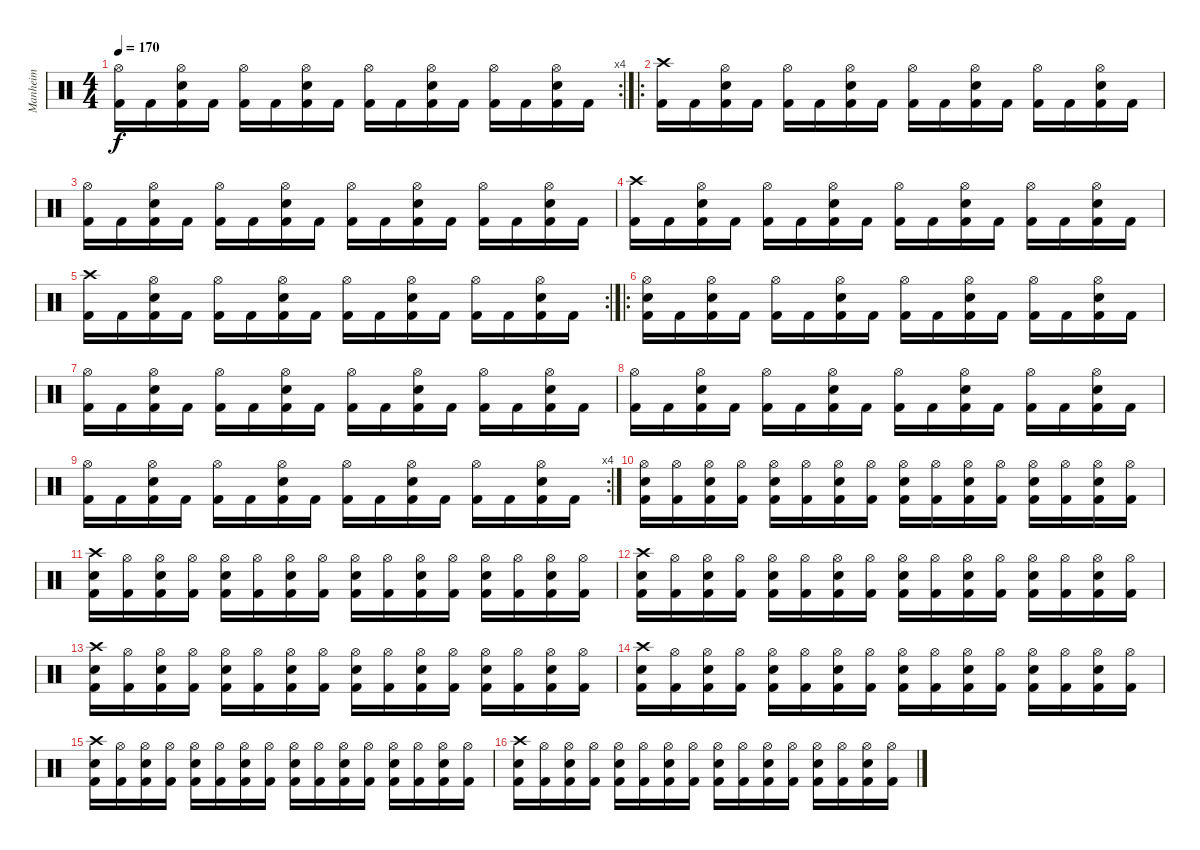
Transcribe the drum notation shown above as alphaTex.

\track ("Manheim" "Manheim") {instrument percussion}
\staff {score}
\articulation defaults
\rc 4
\ts (4 4)
\tempo 170
\clef neutral
\ks c
("Hi-Hat (open)" "Kick (hit) 2").16{dy f} "Kick (hit) 2".16 ("Hi-Hat (open)" "Snare (hit) 2" "Kick (hit) 2").16 "Kick (hit) 2".16 ("Hi-Hat (open)" "Kick (hit) 2").16 "Kick (hit) 2".16 ("Hi-Hat (open)" "Snare (hit) 2" "Kick (hit) 2").16 "Kick (hit) 2".16 ("Hi-Hat (open)" "Kick (hit) 2").16 "Kick (hit) 2".16 ("Hi-Hat (open)" "Snare (hit) 2" "Kick (hit) 2").16 "Kick (hit) 2".16 ("Hi-Hat (open)" "Kick (hit) 2").16 "Kick (hit) 2".16 ("Hi-Hat (open)" "Snare (hit) 2" "Kick (hit) 2").16 "Kick (hit) 2".16 |
\ro
("Crash high (hit)" "Kick (hit) 2").16 "Kick (hit) 2".16 ("Hi-Hat (open)" "Snare (hit) 2" "Kick (hit) 2").16 "Kick (hit) 2".16 ("Hi-Hat (open)" "Kick (hit) 2").16 "Kick (hit) 2".16 ("Hi-Hat (open)" "Snare (hit) 2" "Kick (hit) 2").16 "Kick (hit) 2".16 ("Hi-Hat (open)" "Kick (hit) 2").16 "Kick (hit) 2".16 ("Hi-Hat (open)" "Snare (hit) 2" "Kick (hit) 2").16 "Kick (hit) 2".16 ("Hi-Hat (open)" "Kick (hit) 2").16 "Kick (hit) 2".16 ("Hi-Hat (open)" "Snare (hit) 2" "Kick (hit) 2").16 "Kick (hit) 2".16 |
("Hi-Hat (open)" "Kick (hit) 2").16 "Kick (hit) 2".16 ("Hi-Hat (open)" "Snare (hit) 2" "Kick (hit) 2").16 "Kick (hit) 2".16 ("Hi-Hat (open)" "Kick (hit) 2").16 "Kick (hit) 2".16 ("Hi-Hat (open)" "Snare (hit) 2" "Kick (hit) 2").16 "Kick (hit) 2".16 ("Hi-Hat (open)" "Kick (hit) 2").16 "Kick (hit) 2".16 ("Hi-Hat (open)" "Snare (hit) 2" "Kick (hit) 2").16 "Kick (hit) 2".16 ("Hi-Hat (open)" "Kick (hit) 2").16 "Kick (hit) 2".16 ("Hi-Hat (open)" "Snare (hit) 2" "Kick (hit) 2").16 "Kick (hit) 2".16 |
("Crash high (hit)" "Kick (hit) 2").16 "Kick (hit) 2".16 ("Hi-Hat (open)" "Snare (hit) 2" "Kick (hit) 2").16 "Kick (hit) 2".16 ("Hi-Hat (open)" "Kick (hit) 2").16 "Kick (hit) 2".16 ("Hi-Hat (open)" "Snare (hit) 2" "Kick (hit) 2").16 "Kick (hit) 2".16 ("Hi-Hat (open)" "Kick (hit) 2").16 "Kick (hit) 2".16 ("Hi-Hat (open)" "Snare (hit) 2" "Kick (hit) 2").16 "Kick (hit) 2".16 ("Hi-Hat (open)" "Kick (hit) 2").16 "Kick (hit) 2".16 ("Hi-Hat (open)" "Snare (hit) 2" "Kick (hit) 2").16 "Kick (hit) 2".16 |
\rc 2
("Crash high (hit)" "Kick (hit) 2").16 "Kick (hit) 2".16 ("Hi-Hat (open)" "Snare (hit) 2" "Kick (hit) 2").16 "Kick (hit) 2".16 ("Hi-Hat (open)" "Kick (hit) 2").16 "Kick (hit) 2".16 ("Hi-Hat (open)" "Snare (hit) 2" "Kick (hit) 2").16 "Kick (hit) 2".16 ("Hi-Hat (open)" "Kick (hit) 2").16 "Kick (hit) 2".16 ("Hi-Hat (open)" "Snare (hit) 2" "Kick (hit) 2").16 "Kick (hit) 2".16 ("Hi-Hat (open)" "Kick (hit) 2").16 "Kick (hit) 2".16 ("Hi-Hat (open)" "Snare (hit) 2" "Kick (hit) 2").16 "Kick (hit) 2".16 |
\ro
("Hi-Hat (open)" "Snare (hit) 2" "Kick (hit) 2").16 "Kick (hit) 2".16 ("Hi-Hat (open)" "Snare (hit) 2" "Kick (hit) 2").16 "Kick (hit) 2".16 ("Hi-Hat (open)" "Kick (hit) 2").16 "Kick (hit) 2".16 ("Hi-Hat (open)" "Snare (hit) 2" "Kick (hit) 2").16 "Kick (hit) 2".16 ("Hi-Hat (open)" "Kick (hit) 2").16 "Kick (hit) 2".16 ("Hi-Hat (open)" "Snare (hit) 2" "Kick (hit) 2").16 "Kick (hit) 2".16 ("Hi-Hat (open)" "Kick (hit) 2").16 "Kick (hit) 2".16 ("Hi-Hat (open)" "Snare (hit) 2" "Kick (hit) 2").16 "Kick (hit) 2".16 |
("Hi-Hat (open)" "Kick (hit) 2").16 "Kick (hit) 2".16 ("Hi-Hat (open)" "Snare (hit) 2" "Kick (hit) 2").16 "Kick (hit) 2".16 ("Hi-Hat (open)" "Kick (hit) 2").16 "Kick (hit) 2".16 ("Hi-Hat (open)" "Snare (hit) 2" "Kick (hit) 2").16 "Kick (hit) 2".16 ("Hi-Hat (open)" "Kick (hit) 2").16 "Kick (hit) 2".16 ("Hi-Hat (open)" "Snare (hit) 2" "Kick (hit) 2").16 "Kick (hit) 2".16 ("Hi-Hat (open)" "Kick (hit) 2").16 "Kick (hit) 2".16 ("Hi-Hat (open)" "Snare (hit) 2" "Kick (hit) 2").16 "Kick (hit) 2".16 |
("Hi-Hat (open)" "Kick (hit) 2").16 "Kick (hit) 2".16 ("Hi-Hat (open)" "Snare (hit) 2" "Kick (hit) 2").16 "Kick (hit) 2".16 ("Hi-Hat (open)" "Kick (hit) 2").16 "Kick (hit) 2".16 ("Hi-Hat (open)" "Snare (hit) 2" "Kick (hit) 2").16 "Kick (hit) 2".16 ("Hi-Hat (open)" "Kick (hit) 2").16 "Kick (hit) 2".16 ("Hi-Hat (open)" "Snare (hit) 2" "Kick (hit) 2").16 "Kick (hit) 2".16 ("Hi-Hat (open)" "Kick (hit) 2").16 "Kick (hit) 2".16 ("Hi-Hat (open)" "Snare (hit) 2" "Kick (hit) 2").16 "Kick (hit) 2".16 |
\rc 4
("Hi-Hat (open)" "Kick (hit) 2").16 "Kick (hit) 2".16 ("Hi-Hat (open)" "Snare (hit) 2" "Kick (hit) 2").16 "Kick (hit) 2".16 ("Hi-Hat (open)" "Kick (hit) 2").16 "Kick (hit) 2".16 ("Hi-Hat (open)" "Snare (hit) 2" "Kick (hit) 2").16 "Kick (hit) 2".16 ("Hi-Hat (open)" "Kick (hit) 2").16 "Kick (hit) 2".16 ("Hi-Hat (open)" "Snare (hit) 2" "Kick (hit) 2").16 "Kick (hit) 2".16 ("Hi-Hat (open)" "Kick (hit) 2").16 "Kick (hit) 2".16 ("Hi-Hat (open)" "Snare (hit) 2" "Kick (hit) 2").16 "Kick (hit) 2".16 |
("Hi-Hat (open)" "Snare (hit) 2" "Kick (hit) 2").16 ("Hi-Hat (open)" "Kick (hit) 2").16 ("Hi-Hat (open)" "Snare (hit) 2" "Kick (hit) 2").16 ("Hi-Hat (open)" "Kick (hit) 2").16 ("Hi-Hat (open)" "Snare (hit) 2" "Kick (hit) 2").16 ("Hi-Hat (open)" "Kick (hit) 2").16 ("Hi-Hat (open)" "Snare (hit) 2" "Kick (hit) 2").16 ("Hi-Hat (open)" "Kick (hit) 2").16 ("Hi-Hat (open)" "Snare (hit) 2" "Kick (hit) 2").16 ("Hi-Hat (open)" "Kick (hit) 2").16 ("Hi-Hat (open)" "Snare (hit) 2" "Kick (hit) 2").16 ("Hi-Hat (open)" "Kick (hit) 2").16 ("Hi-Hat (open)" "Snare (hit) 2" "Kick (hit) 2").16 ("Hi-Hat (open)" "Kick (hit) 2").16 ("Hi-Hat (open)" "Snare (hit) 2" "Kick (hit) 2").16 ("Hi-Hat (open)" "Kick (hit) 2").16 |
("Crash high (hit)" "Snare (hit) 2" "Kick (hit) 2").16 ("Hi-Hat (open)" "Kick (hit) 2").16 ("Hi-Hat (open)" "Snare (hit) 2" "Kick (hit) 2").16 ("Hi-Hat (open)" "Kick (hit) 2").16 ("Hi-Hat (open)" "Snare (hit) 2" "Kick (hit) 2").16 ("Hi-Hat (open)" "Kick (hit) 2").16 ("Hi-Hat (open)" "Snare (hit) 2" "Kick (hit) 2").16 ("Hi-Hat (open)" "Kick (hit) 2").16 ("Hi-Hat (open)" "Snare (hit) 2" "Kick (hit) 2").16 ("Hi-Hat (open)" "Kick (hit) 2").16 ("Hi-Hat (open)" "Snare (hit) 2" "Kick (hit) 2").16 ("Hi-Hat (open)" "Kick (hit) 2").16 ("Hi-Hat (open)" "Snare (hit) 2" "Kick (hit) 2").16 ("Hi-Hat (open)" "Kick (hit) 2").16 ("Hi-Hat (open)" "Snare (hit) 2" "Kick (hit) 2").16 ("Hi-Hat (open)" "Kick (hit) 2").16 |
("Crash high (hit)" "Snare (hit) 2" "Kick (hit) 2").16 ("Hi-Hat (open)" "Kick (hit) 2").16 ("Hi-Hat (open)" "Snare (hit) 2" "Kick (hit) 2").16 ("Hi-Hat (open)" "Kick (hit) 2").16 ("Hi-Hat (open)" "Snare (hit) 2" "Kick (hit) 2").16 ("Hi-Hat (open)" "Kick (hit) 2").16 ("Hi-Hat (open)" "Snare (hit) 2" "Kick (hit) 2").16 ("Hi-Hat (open)" "Kick (hit) 2").16 ("Hi-Hat (open)" "Snare (hit) 2" "Kick (hit) 2").16 ("Hi-Hat (open)" "Kick (hit) 2").16 ("Hi-Hat (open)" "Snare (hit) 2" "Kick (hit) 2").16 ("Hi-Hat (open)" "Kick (hit) 2").16 ("Hi-Hat (open)" "Snare (hit) 2" "Kick (hit) 2").16 ("Hi-Hat (open)" "Kick (hit) 2").16 ("Hi-Hat (open)" "Snare (hit) 2" "Kick (hit) 2").16 ("Hi-Hat (open)" "Kick (hit) 2").16 |
("Crash high (hit)" "Snare (hit) 2" "Kick (hit) 2").16 ("Hi-Hat (open)" "Kick (hit) 2").16 ("Hi-Hat (open)" "Snare (hit) 2" "Kick (hit) 2").16 ("Hi-Hat (open)" "Kick (hit) 2").16 ("Hi-Hat (open)" "Snare (hit) 2" "Kick (hit) 2").16 ("Hi-Hat (open)" "Kick (hit) 2").16 ("Hi-Hat (open)" "Snare (hit) 2" "Kick (hit) 2").16 ("Hi-Hat (open)" "Kick (hit) 2").16 ("Hi-Hat (open)" "Snare (hit) 2" "Kick (hit) 2").16 ("Hi-Hat (open)" "Kick (hit) 2").16 ("Hi-Hat (open)" "Snare (hit) 2" "Kick (hit) 2").16 ("Hi-Hat (open)" "Kick (hit) 2").16 ("Hi-Hat (open)" "Snare (hit) 2" "Kick (hit) 2").16 ("Hi-Hat (open)" "Kick (hit) 2").16 ("Hi-Hat (open)" "Snare (hit) 2" "Kick (hit) 2").16 ("Hi-Hat (open)" "Kick (hit) 2").16 |
("Crash high (hit)" "Snare (hit) 2" "Kick (hit) 2").16 ("Hi-Hat (open)" "Kick (hit) 2").16 ("Hi-Hat (open)" "Snare (hit) 2" "Kick (hit) 2").16 ("Hi-Hat (open)" "Kick (hit) 2").16 ("Hi-Hat (open)" "Snare (hit) 2" "Kick (hit) 2").16 ("Hi-Hat (open)" "Kick (hit) 2").16 ("Hi-Hat (open)" "Snare (hit) 2" "Kick (hit) 2").16 ("Hi-Hat (open)" "Kick (hit) 2").16 ("Hi-Hat (open)" "Snare (hit) 2" "Kick (hit) 2").16 ("Hi-Hat (open)" "Kick (hit) 2").16 ("Hi-Hat (open)" "Snare (hit) 2" "Kick (hit) 2").16 ("Hi-Hat (open)" "Kick (hit) 2").16 ("Hi-Hat (open)" "Snare (hit) 2" "Kick (hit) 2").16 ("Hi-Hat (open)" "Kick (hit) 2").16 ("Hi-Hat (open)" "Snare (hit) 2" "Kick (hit) 2").16 ("Hi-Hat (open)" "Kick (hit) 2").16 |
("Crash high (hit)" "Snare (hit) 2" "Kick (hit) 2").16 ("Hi-Hat (open)" "Kick (hit) 2").16 ("Hi-Hat (open)" "Snare (hit) 2" "Kick (hit) 2").16 ("Hi-Hat (open)" "Kick (hit) 2").16 ("Hi-Hat (open)" "Snare (hit) 2" "Kick (hit) 2").16 ("Hi-Hat (open)" "Kick (hit) 2").16 ("Hi-Hat (open)" "Snare (hit) 2" "Kick (hit) 2").16 ("Hi-Hat (open)" "Kick (hit) 2").16 ("Hi-Hat (open)" "Snare (hit) 2" "Kick (hit) 2").16 ("Hi-Hat (open)" "Kick (hit) 2").16 ("Hi-Hat (open)" "Snare (hit) 2" "Kick (hit) 2").16 ("Hi-Hat (open)" "Kick (hit) 2").16 ("Hi-Hat (open)" "Snare (hit) 2" "Kick (hit) 2").16 ("Hi-Hat (open)" "Kick (hit) 2").16 ("Hi-Hat (open)" "Snare (hit) 2" "Kick (hit) 2").16 ("Hi-Hat (open)" "Kick (hit) 2").16 |
("Crash high (hit)" "Snare (hit) 2" "Kick (hit) 2").16 ("Hi-Hat (open)" "Kick (hit) 2").16 ("Hi-Hat (open)" "Snare (hit) 2" "Kick (hit) 2").16 ("Hi-Hat (open)" "Kick (hit) 2").16 ("Hi-Hat (open)" "Snare (hit) 2" "Kick (hit) 2").16 ("Hi-Hat (open)" "Kick (hit) 2").16 ("Hi-Hat (open)" "Snare (hit) 2" "Kick (hit) 2").16 ("Hi-Hat (open)" "Kick (hit) 2").16 ("Hi-Hat (open)" "Snare (hit) 2" "Kick (hit) 2").16 ("Hi-Hat (open)" "Kick (hit) 2").16 ("Hi-Hat (open)" "Snare (hit) 2" "Kick (hit) 2").16 ("Hi-Hat (open)" "Kick (hit) 2").16 ("Hi-Hat (open)" "Snare (hit) 2" "Kick (hit) 2").16 ("Hi-Hat (open)" "Kick (hit) 2").16 ("Hi-Hat (open)" "Snare (hit) 2" "Kick (hit) 2").16 ("Hi-Hat (open)" "Kick (hit) 2").16
